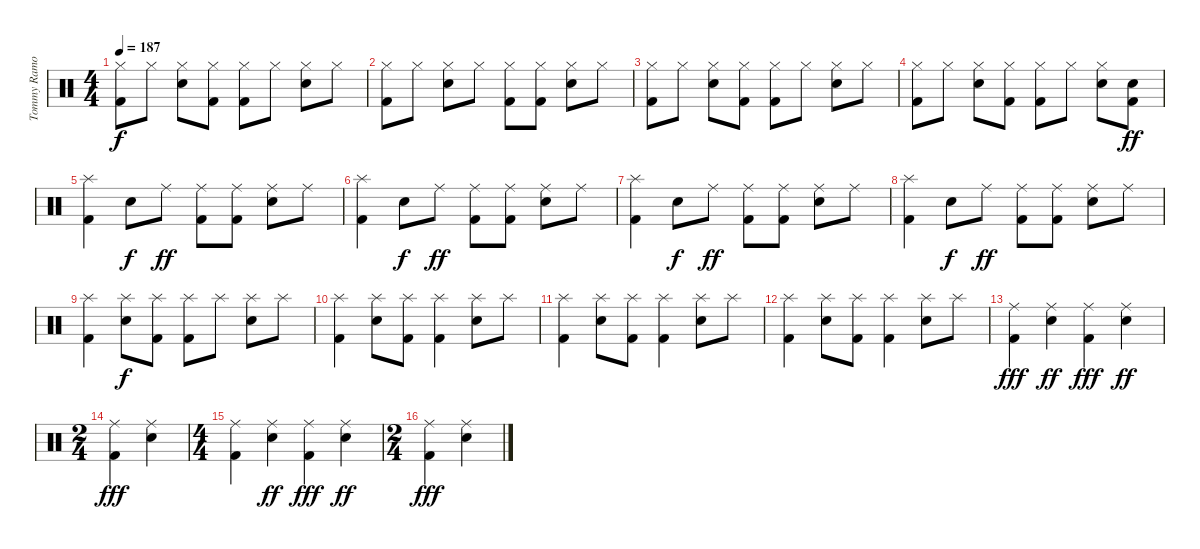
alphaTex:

\track ("Tommy Ramone" "Tommy Ramo") {instrument percussion}
\staff {score}
\articulation defaults
\ts (4 4)
\tempo 187
\clef neutral
\ks c
("Kick (hit) 2" "Hi-Hat (closed)").8{dy f} "Hi-Hat (closed)".8 ("Snare (hit) 2" "Hi-Hat (closed)").8 ("Kick (hit) 2" "Hi-Hat (closed)").8 ("Kick (hit) 2" "Hi-Hat (closed)").8 "Hi-Hat (closed)".8 ("Snare (hit) 2" "Hi-Hat (closed)").8 "Hi-Hat (closed)".8 |
("Kick (hit) 2" "Hi-Hat (closed)").8 "Hi-Hat (closed)".8 ("Snare (hit) 2" "Hi-Hat (closed)").8 "Hi-Hat (closed)".8 ("Kick (hit) 2" "Hi-Hat (closed)").8 ("Kick (hit) 2" "Hi-Hat (closed)").8 ("Snare (hit) 2" "Hi-Hat (closed)").8 "Hi-Hat (closed)".8 |
("Kick (hit) 2" "Hi-Hat (closed)").8 "Hi-Hat (closed)".8 ("Snare (hit) 2" "Hi-Hat (closed)").8 ("Kick (hit) 2" "Hi-Hat (closed)").8 ("Kick (hit) 2" "Hi-Hat (closed)").8 "Hi-Hat (closed)".8 ("Snare (hit) 2" "Hi-Hat (closed)").8 "Hi-Hat (closed)".8 |
("Kick (hit) 2" "Hi-Hat (closed)").8 "Hi-Hat (closed)".8 ("Snare (hit) 2" "Hi-Hat (closed)").8 ("Kick (hit) 2" "Hi-Hat (closed)").8 ("Kick (hit) 2" "Hi-Hat (closed)").8 "Hi-Hat (closed)".8 ("Snare (hit) 2" "Hi-Hat (closed)").8 ("Kick (hit) 2" "Hand Clap (hit)").8{dy ff} |
("Kick (hit) 2" "Splash (hit)").4 "Snare (hit) 2".8{dy f} "Ride (middle)".8{dy ff} ("Kick (hit) 2" "Ride (middle)").8 ("Kick (hit) 2" "Ride (middle)").8 ("Snare (hit) 2" "Ride (middle)").8 "Ride (middle)".8 |
("Kick (hit) 2" "Splash (hit)").4 "Snare (hit) 2".8{dy f} "Ride (middle)".8{dy ff} ("Kick (hit) 2" "Ride (middle)").8 ("Kick (hit) 2" "Ride (middle)").8 ("Snare (hit) 2" "Ride (middle)").8 "Ride (middle)".8 |
("Kick (hit) 2" "Splash (hit)").4 "Snare (hit) 2".8{dy f} "Ride (middle)".8{dy ff} ("Kick (hit) 2" "Ride (middle)").8 ("Kick (hit) 2" "Ride (middle)").8 ("Snare (hit) 2" "Ride (middle)").8 "Ride (middle)".8 |
("Kick (hit) 2" "Splash (hit)").4 "Snare (hit) 2".8{dy f} "Ride (middle)".8{dy ff} ("Kick (hit) 2" "Ride (middle)").8 ("Kick (hit) 2" "Ride (middle)").8 ("Snare (hit) 2" "Ride (middle)").8 "Ride (middle)".8 |
("Kick (hit) 2" "Splash (hit)").4 ("Snare (hit) 2" "Splash (hit)").8{dy f} ("Kick (hit) 2" "Splash (hit)").8 ("Kick (hit) 2" "Splash (hit)").8 "Splash (hit)".8{bd 240} ("Snare (hit) 2" "Splash (hit)").8 "Splash (hit)".8{bd 240} |
("Kick (hit) 2" "Splash (hit)").4 ("Snare (hit) 2" "Splash (hit)").8 ("Kick (hit) 2" "Splash (hit)").8{bd 240} ("Kick (hit) 2" "Splash (hit)").4 ("Snare (hit) 2" "Splash (hit)").8 "Splash (hit)".8 |
("Kick (hit) 2" "Splash (hit)").4 ("Snare (hit) 2" "Splash (hit)").8 ("Kick (hit) 2" "Splash (hit)").8{bd 240} ("Kick (hit) 2" "Splash (hit)").4 ("Snare (hit) 2" "Splash (hit)").8 "Splash (hit)".8 |
("Kick (hit) 2" "Splash (hit)").4 ("Snare (hit) 2" "Splash (hit)").8 ("Kick (hit) 2" "Splash (hit)").8{bd 240} ("Kick (hit) 2" "Splash (hit)").4 ("Snare (hit) 2" "Splash (hit)").8 "Splash (hit)".8 |
("Kick (hit) 2" "Ride (middle)").4{dy fff} ("Snare (hit) 2" "Ride (middle)").4{dy ff} ("Kick (hit) 2" "Ride (middle)").4{dy fff} ("Snare (hit) 2" "Ride (middle)").4{dy ff} |
\ts (2 4)
("Kick (hit) 2" "Ride (middle)").4{dy fff} ("Snare (hit) 2" "Ride (middle)").4 |
\ts (4 4)
("Kick (hit) 2" "Ride (middle)").4 ("Snare (hit) 2" "Ride (middle)").4{dy ff} ("Kick (hit) 2" "Ride (middle)").4{dy fff} ("Snare (hit) 2" "Ride (middle)").4{dy ff} |
\ts (2 4)
("Kick (hit) 2" "Ride (middle)").4{dy fff} ("Snare (hit) 2" "Ride (middle)").4
